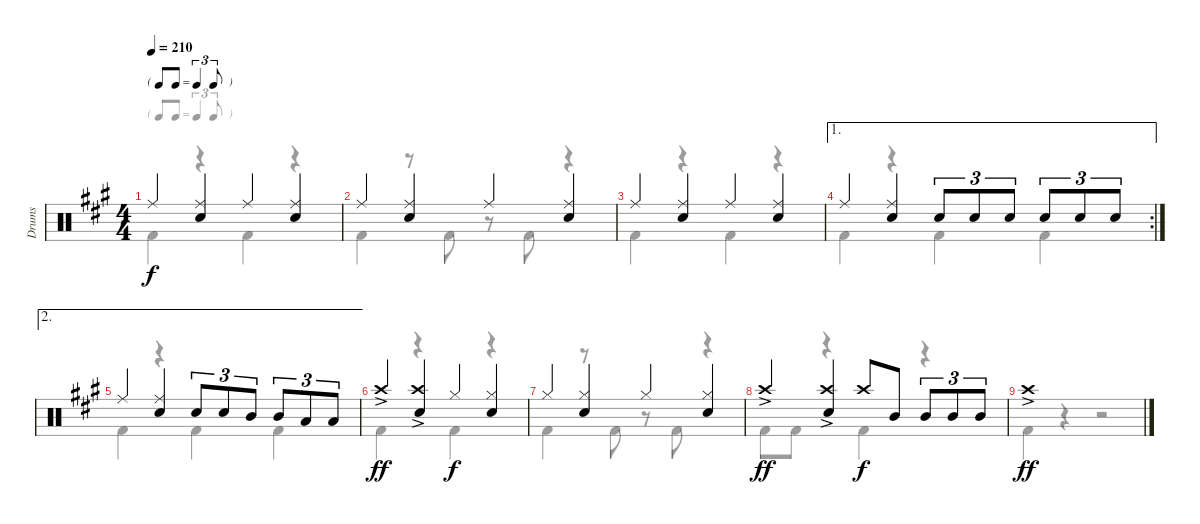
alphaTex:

\track ("Drums" "Drums") {instrument percussion}
\staff {score}
\articulation defaults
\voice
\ts (4 4)
\tf triplet8th
\tempo 210
\clef neutral
\ks a "Ride (middle)".4{dy f}
("Ride (middle)" "Snare (hit) 2").4 "Ride (middle)".4 ("Ride (middle)" "Snare (hit) 2").4 |
"Ride (middle)".4 ("Ride (middle)" "Snare (hit) 2").4 "Ride (middle)".4 ("Ride (middle)" "Snare (hit) 2").4 |
"Ride (middle)".4 ("Ride (middle)" "Snare (hit) 2").4 "Ride (middle)".4 ("Ride (middle)" "Snare (hit) 2").4 |
\ae 1
\rc 2 "Ride (middle)".4
("Ride (middle)" "Snare (hit) 2").4 "Snare (hit) 2".8{tu (3 2)} "Snare (hit) 2".8{tu (3 2)} "Snare (hit) 2".8{tu (3 2)} "Snare (hit) 2".8{tu (3 2)} "Snare (hit) 2".8{tu (3 2)} "Snare (hit) 2".8{tu (3 2)} |
\ae 2 "Ride (middle)".4
("Ride (middle)" "Snare (hit) 2").4 "Snare (hit) 2".8{tu (3 2)} "Snare (hit) 2".8{tu (3 2)} "Mid Tom (hit)".8{tu (3 2)} "Mid Tom (hit)".8{tu (3 2)} "Low Tom (hit)".8{tu (3 2)} "Low Tom (hit)".8{tu (3 2)} |
"Crash high (hit)"{ac}.4{dy ff} ("Crash high (hit)"{ac} "Snare (hit) 2").4 "Hi-Hat (closed)".4{dy f} ("Hi-Hat (closed)" "Snare (hit) 2").4 |
"Hi-Hat (closed)".4 ("Hi-Hat (closed)" "Snare (hit) 2").4 "Hi-Hat (closed)".4 ("Hi-Hat (closed)" "Snare (hit) 2").4 |
"Crash high (hit)"{ac}.4{dy ff} ("Crash high (hit)"{ac} "Snare (hit) 2").4 "Crash high (hit)".8{dy f} "Mid Tom (hit)".8 "Mid Tom (hit)".8{tu (3 2)} "Mid Tom (hit)".8{tu (3 2)} "Mid Tom (hit)".8{tu (3 2)} |
"Crash high (hit)"{ac}.1{dy ff}
\voice
\clef neutral
\ottava regular
\simile none
\ks a "Kick (hit) 2".4{dy f}
r.4 "Kick (hit) 2".4 r.4 |
"Kick (hit) 2".4 r.8 "Kick (hit) 2".8 r.8 "Kick (hit) 2".8 r.4 |
"Kick (hit) 2".4 r.4 "Kick (hit) 2".4 r.4 |
"Kick (hit) 2".4 r.4 "Kick (hit) 2".4 "Kick (hit) 2".4 |
"Kick (hit) 2".4 r.4 "Kick (hit) 2".4 "Kick (hit) 2".4 |
"Kick (hit) 2".4 r.4 "Kick (hit) 2".4 r.4 |
"Kick (hit) 2".4 r.8 "Kick (hit) 2".8 r.8 "Kick (hit) 2".8 r.4 |
"Kick (hit) 2".8 "Kick (hit) 2".8 r.4 "Kick (hit) 2".4 r.4 |
"Kick (hit) 2".4 r.4 r.2
